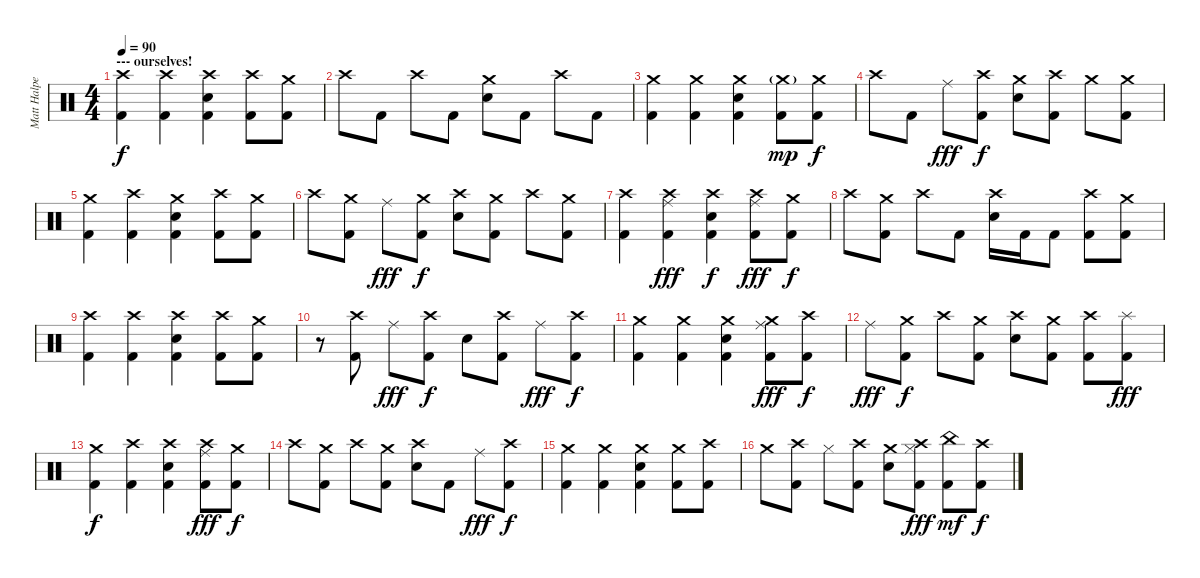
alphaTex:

\track ("Matt Halpern - Drums" "Matt Halpe") {instrument percussion}
\staff {score}
\articulation defaults
\ts (4 4)
\section ("" "--- ourselves!")
\tempo 90
\clef neutral
\ks c
("Crash high (hit)" "Kick (hit) 2").4{dy f} ("Crash high (hit)" "Kick (hit) 2").4 ("Crash high (hit)" "Electric Snare (hit)" "Kick (hit) 2").4 ("Crash high (hit)" "Kick (hit) 2").8 ("Crash medium (hit)" "Kick (hit) 2").8 |
"Crash high (hit)".8 "Kick (hit) 2".8 "Crash high (hit)".8 "Kick (hit) 2".8 ("Crash medium (hit)" "Electric Snare (hit)").8 "Kick (hit) 2".8 "Crash high (hit)".8 "Kick (hit) 2".8 |
("Crash medium (hit)" "Kick (hit) 2").4 ("Crash medium (hit)" "Kick (hit) 2").4 ("Crash medium (hit)" "Electric Snare (hit)" "Kick (hit) 2").4 ("Crash medium (hit)"{g} "Kick (hit) 2").8{dy mp} ("Crash medium (hit)" "Kick (hit) 2").8{dy f} |
"Crash high (hit)".8 "Kick (hit) 2".8 "Ride (middle)".8{dy fff} ("Crash high (hit)" "Kick (hit) 2").8{dy f} ("Crash medium (hit)" "Electric Snare (hit)").8 ("Crash high (hit)" "Kick (hit) 2").8 "Crash medium (hit)".8 ("Crash medium (hit)" "Kick (hit) 2").8 |
("Crash medium (hit)" "Kick (hit) 2").4 ("Crash high (hit)" "Kick (hit) 2").4 ("Crash medium (hit)" "Electric Snare (hit)" "Kick (hit) 2").4 ("Crash high (hit)" "Kick (hit) 2").8 ("Crash medium (hit)" "Kick (hit) 2").8 |
"Crash high (hit)".8 ("Crash medium (hit)" "Kick (hit) 2").8 "Ride (middle)".8{dy fff} ("Crash medium (hit)" "Kick (hit) 2").8{dy f} ("Crash high (hit)" "Electric Snare (hit)").8 ("Crash medium (hit)" "Kick (hit) 2").8 "Crash high (hit)".8 ("Crash medium (hit)" "Kick (hit) 2").8 |
("Crash high (hit)" "Kick (hit) 2").4 ("Crash high (hit)" "Ride (middle)" "Kick (hit) 2").4{dy fff} ("Crash high (hit)" "Electric Snare (hit)" "Kick (hit) 2").4{dy f} ("Crash high (hit)" "Ride (middle)" "Kick (hit) 2").8{dy fff} ("Crash medium (hit)" "Kick (hit) 2").8{dy f} |
"Crash high (hit)".8 ("Crash medium (hit)" "Kick (hit) 2").8 "Crash high (hit)".8 "Kick (hit) 2".8 ("Crash high (hit)" "Electric Snare (hit)").16 "Kick (hit) 2".16 "Kick (hit) 2".8 ("Crash high (hit)" "Kick (hit) 2").8 ("Crash medium (hit)" "Kick (hit) 2").8 |
("Crash high (hit)" "Kick (hit) 2").4 ("Crash high (hit)" "Kick (hit) 2").4 ("Crash high (hit)" "Electric Snare (hit)" "Kick (hit) 2").4 ("Crash high (hit)" "Kick (hit) 2").8 ("Crash medium (hit)" "Kick (hit) 2").8 |
r.8 ("Crash high (hit)" "Kick (hit) 2").8 "Ride (middle)".8{dy fff} ("Crash high (hit)" "Kick (hit) 2").8{dy f} "Electric Snare (hit)".8 ("Crash high (hit)" "Kick (hit) 2").8 "Ride (middle)".8{dy fff} ("Crash high (hit)" "Kick (hit) 2").8{dy f} |
("Crash medium (hit)" "Kick (hit) 2").4 ("Crash medium (hit)" "Kick (hit) 2").4 ("Crash medium (hit)" "Electric Snare (hit)" "Kick (hit) 2").4 ("Crash medium (hit)" "Ride (middle)" "Kick (hit) 2").8{dy fff} ("Crash high (hit)" "Kick (hit) 2").8{dy f} |
"Ride (middle)".8{dy fff} ("Crash medium (hit)" "Kick (hit) 2").8{dy f} "Crash high (hit)".8 ("Crash medium (hit)" "Kick (hit) 2").8 ("Crash high (hit)" "Electric Snare (hit)").8 ("Crash medium (hit)" "Kick (hit) 2").8 ("Crash high (hit)" "Kick (hit) 2").8 ("Splash (hit)" "Kick (hit) 2").8{dy fff} |
("Crash medium (hit)" "Kick (hit) 2").4{dy f} ("Crash high (hit)" "Kick (hit) 2").4 ("Crash high (hit)" "Electric Snare (hit)" "Kick (hit) 2").4 ("Crash high (hit)" "Ride (middle)" "Kick (hit) 2").8{dy fff} ("Crash medium (hit)" "Kick (hit) 2").8{dy f} |
"Crash high (hit)".8 ("Crash medium (hit)" "Kick (hit) 2").8 "Crash high (hit)".8 ("Crash medium (hit)" "Kick (hit) 2").8 ("Crash high (hit)" "Electric Snare (hit)").8 "Kick (hit) 2".8 "Ride (middle)".8{dy fff} ("Crash high (hit)" "Kick (hit) 2").8{dy f} |
("Crash medium (hit)" "Kick (hit) 2").4 ("Crash medium (hit)" "Kick (hit) 2").4 ("Crash medium (hit)" "Electric Snare (hit)" "Kick (hit) 2").4 ("Crash medium (hit)" "Kick (hit) 2").8 ("Crash high (hit)" "Kick (hit) 2").8 |
"Crash medium (hit)".8 ("Crash high (hit)" "Kick (hit) 2").8 "Hi-Hat (closed)".8 ("Crash high (hit)" "Kick (hit) 2").8 ("Crash medium (hit)" "Electric Snare (hit)").8 ("Crash high (hit)" "Hi-Hat (closed)" "Kick (hit) 2").8{dy fff} ("China (hit)" "Kick (hit) 2").8{dy mf} ("Crash high (hit)" "Kick (hit) 2").8{dy f}
